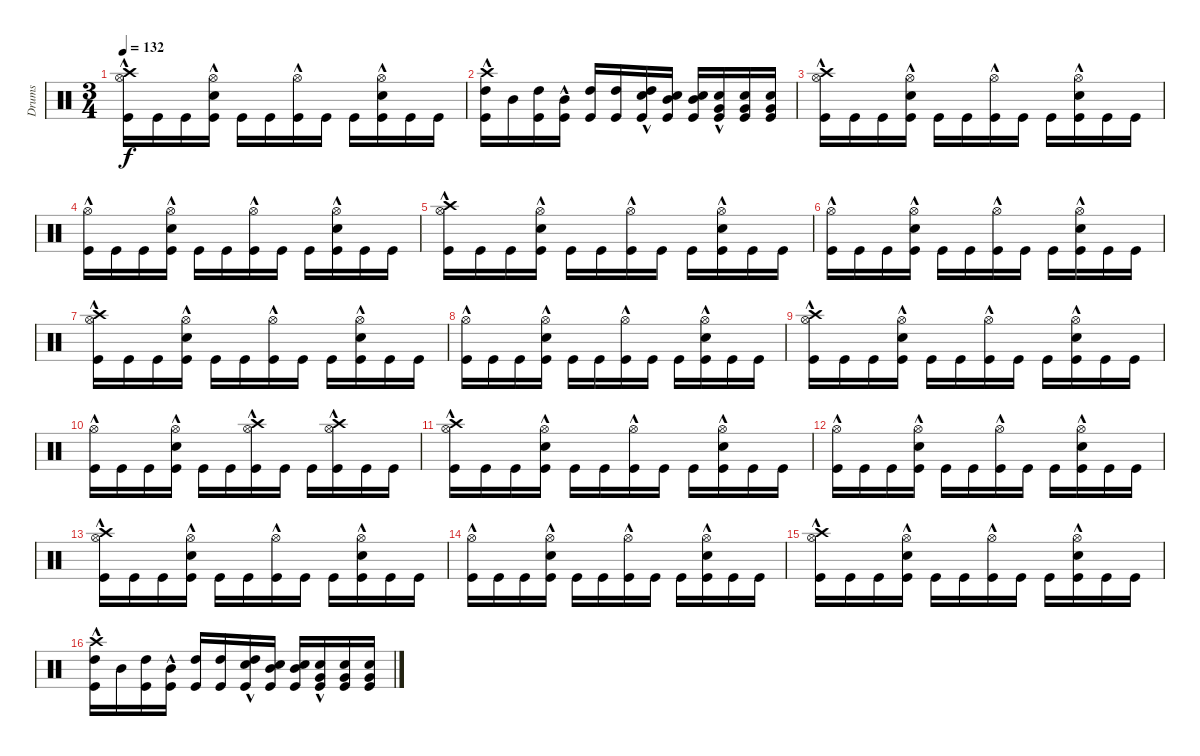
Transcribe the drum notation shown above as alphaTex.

\track ("Drums" "Drums") {instrument percussion}
\staff {score}
\articulation defaults
\ts (3 4)
\tempo 132
\clef neutral
\ks c
("Crash high (hit)" "Hi-Hat (open)"{hac} "Kick (hit)").16{dy f} "Kick (hit)".16 "Kick (hit)".16 ("Hi-Hat (open)"{hac} "Kick (hit)" "Electric Snare (hit)").16 "Kick (hit)".16 "Kick (hit)".16 ("Hi-Hat (open)"{hac} "Kick (hit)").16 "Kick (hit)".16 "Kick (hit)".16 ("Hi-Hat (open)"{hac} "Kick (hit)" "Electric Snare (hit)").16 "Kick (hit)".16 "Kick (hit)".16 |
("High Tom (hit)"{hac} "Crash high (hit)" "Kick (hit)").16 "Mid Tom (hit)".16 ("High Tom (hit)" "Kick (hit)").16 ("Mid Tom (hit)"{hac} "Kick (hit)").16 ("High Tom (hit)" "Kick (hit)").16 ("High Tom (hit)" "Kick (hit)").16 ("High Tom (hit)"{hac} "Snare (hit) 2" "Kick (hit)").16 ("Mid Tom (hit)" "Snare (hit) 2" "Kick (hit)").16 ("Mid Tom (hit)" "Snare (hit) 2" "Kick (hit)").16 ("Very Low Tom (hit)"{hac} "Snare (hit) 2" "Kick (hit)").16 ("Very Low Tom (hit)" "Snare (hit) 2" "Kick (hit)").16 ("Very Low Tom (hit)" "Snare (hit) 2" "Kick (hit)").16 |
("Crash high (hit)" "Hi-Hat (open)"{hac} "Kick (hit)").16 "Kick (hit)".16 "Kick (hit)".16 ("Hi-Hat (open)"{hac} "Kick (hit)" "Electric Snare (hit)").16 "Kick (hit)".16 "Kick (hit)".16 ("Hi-Hat (open)"{hac} "Kick (hit)").16 "Kick (hit)".16 "Kick (hit)".16 ("Hi-Hat (open)"{hac} "Kick (hit)" "Electric Snare (hit)").16 "Kick (hit)".16 "Kick (hit)".16 |
("Hi-Hat (open)"{hac} "Kick (hit)").16 "Kick (hit)".16 "Kick (hit)".16 ("Hi-Hat (open)"{hac} "Kick (hit)" "Electric Snare (hit)").16 "Kick (hit)".16 "Kick (hit)".16 ("Hi-Hat (open)"{hac} "Kick (hit)").16 "Kick (hit)".16 "Kick (hit)".16 ("Hi-Hat (open)"{hac} "Kick (hit)" "Electric Snare (hit)").16 "Kick (hit)".16 "Kick (hit)".16 |
("Crash high (hit)" "Hi-Hat (open)"{hac} "Kick (hit)").16 "Kick (hit)".16 "Kick (hit)".16 ("Hi-Hat (open)"{hac} "Kick (hit)" "Electric Snare (hit)").16 "Kick (hit)".16 "Kick (hit)".16 ("Hi-Hat (open)"{hac} "Kick (hit)").16 "Kick (hit)".16 "Kick (hit)".16 ("Hi-Hat (open)"{hac} "Kick (hit)" "Electric Snare (hit)").16 "Kick (hit)".16 "Kick (hit)".16 |
("Hi-Hat (open)"{hac} "Kick (hit)").16 "Kick (hit)".16 "Kick (hit)".16 ("Hi-Hat (open)"{hac} "Kick (hit)" "Electric Snare (hit)").16 "Kick (hit)".16 "Kick (hit)".16 ("Hi-Hat (open)"{hac} "Kick (hit)").16 "Kick (hit)".16 "Kick (hit)".16 ("Hi-Hat (open)"{hac} "Kick (hit)" "Electric Snare (hit)").16 "Kick (hit)".16 "Kick (hit)".16 |
("Crash high (hit)" "Hi-Hat (open)"{hac} "Kick (hit)").16 "Kick (hit)".16 "Kick (hit)".16 ("Hi-Hat (open)"{hac} "Kick (hit)" "Electric Snare (hit)").16 "Kick (hit)".16 "Kick (hit)".16 ("Hi-Hat (open)"{hac} "Kick (hit)").16 "Kick (hit)".16 "Kick (hit)".16 ("Hi-Hat (open)"{hac} "Kick (hit)" "Electric Snare (hit)").16 "Kick (hit)".16 "Kick (hit)".16 |
("Hi-Hat (open)"{hac} "Kick (hit)").16 "Kick (hit)".16 "Kick (hit)".16 ("Hi-Hat (open)"{hac} "Kick (hit)" "Electric Snare (hit)").16 "Kick (hit)".16 "Kick (hit)".16 ("Hi-Hat (open)"{hac} "Kick (hit)").16 "Kick (hit)".16 "Kick (hit)".16 ("Hi-Hat (open)"{hac} "Kick (hit)" "Electric Snare (hit)").16 "Kick (hit)".16 "Kick (hit)".16 |
("Crash high (hit)" "Hi-Hat (open)"{hac} "Kick (hit)").16 "Kick (hit)".16 "Kick (hit)".16 ("Hi-Hat (open)"{hac} "Kick (hit)" "Electric Snare (hit)").16 "Kick (hit)".16 "Kick (hit)".16 ("Hi-Hat (open)"{hac} "Kick (hit)").16 "Kick (hit)".16 "Kick (hit)".16 ("Hi-Hat (open)"{hac} "Kick (hit)" "Electric Snare (hit)").16 "Kick (hit)".16 "Kick (hit)".16 |
("Hi-Hat (open)"{hac} "Kick (hit)").16 "Kick (hit)".16 "Kick (hit)".16 ("Hi-Hat (open)"{hac} "Kick (hit)" "Electric Snare (hit)").16 "Kick (hit)".16 "Kick (hit)".16 ("Hi-Hat (open)"{hac} "Kick (hit)" "Crash high (hit)").16 "Kick (hit)".16 "Kick (hit)".16 ("Hi-Hat (open)"{hac} "Kick (hit)" "Crash high (hit)").16 "Kick (hit)".16 "Kick (hit)".16 |
("Crash high (hit)" "Hi-Hat (open)"{hac} "Kick (hit)").16 "Kick (hit)".16 "Kick (hit)".16 ("Hi-Hat (open)"{hac} "Kick (hit)" "Electric Snare (hit)").16 "Kick (hit)".16 "Kick (hit)".16 ("Hi-Hat (open)"{hac} "Kick (hit)").16 "Kick (hit)".16 "Kick (hit)".16 ("Hi-Hat (open)"{hac} "Kick (hit)" "Electric Snare (hit)").16 "Kick (hit)".16 "Kick (hit)".16 |
("Hi-Hat (open)"{hac} "Kick (hit)").16 "Kick (hit)".16 "Kick (hit)".16 ("Hi-Hat (open)"{hac} "Kick (hit)" "Electric Snare (hit)").16 "Kick (hit)".16 "Kick (hit)".16 ("Hi-Hat (open)"{hac} "Kick (hit)").16 "Kick (hit)".16 "Kick (hit)".16 ("Hi-Hat (open)"{hac} "Kick (hit)" "Electric Snare (hit)").16 "Kick (hit)".16 "Kick (hit)".16 |
("Crash high (hit)" "Hi-Hat (open)"{hac} "Kick (hit)").16 "Kick (hit)".16 "Kick (hit)".16 ("Hi-Hat (open)"{hac} "Kick (hit)" "Electric Snare (hit)").16 "Kick (hit)".16 "Kick (hit)".16 ("Hi-Hat (open)"{hac} "Kick (hit)").16 "Kick (hit)".16 "Kick (hit)".16 ("Hi-Hat (open)"{hac} "Kick (hit)" "Electric Snare (hit)").16 "Kick (hit)".16 "Kick (hit)".16 |
("Hi-Hat (open)"{hac} "Kick (hit)").16 "Kick (hit)".16 "Kick (hit)".16 ("Hi-Hat (open)"{hac} "Kick (hit)" "Electric Snare (hit)").16 "Kick (hit)".16 "Kick (hit)".16 ("Hi-Hat (open)"{hac} "Kick (hit)").16 "Kick (hit)".16 "Kick (hit)".16 ("Hi-Hat (open)"{hac} "Kick (hit)" "Electric Snare (hit)").16 "Kick (hit)".16 "Kick (hit)".16 |
("Crash high (hit)" "Hi-Hat (open)"{hac} "Kick (hit)").16 "Kick (hit)".16 "Kick (hit)".16 ("Hi-Hat (open)"{hac} "Kick (hit)" "Electric Snare (hit)").16 "Kick (hit)".16 "Kick (hit)".16 ("Hi-Hat (open)"{hac} "Kick (hit)").16 "Kick (hit)".16 "Kick (hit)".16 ("Hi-Hat (open)"{hac} "Kick (hit)" "Electric Snare (hit)").16 "Kick (hit)".16 "Kick (hit)".16 |
("High Tom (hit)"{hac} "Crash high (hit)" "Kick (hit)").16 "Mid Tom (hit)".16 ("High Tom (hit)" "Kick (hit)").16 ("Mid Tom (hit)"{hac} "Kick (hit)").16 ("High Tom (hit)" "Kick (hit)").16 ("High Tom (hit)" "Kick (hit)").16 ("High Tom (hit)"{hac} "Snare (hit) 2" "Kick (hit)").16 ("Mid Tom (hit)" "Snare (hit) 2" "Kick (hit)").16 ("Mid Tom (hit)" "Snare (hit) 2" "Kick (hit)").16 ("Very Low Tom (hit)"{hac} "Snare (hit) 2" "Kick (hit)").16 ("Very Low Tom (hit)" "Snare (hit) 2" "Kick (hit)").16 ("Very Low Tom (hit)" "Snare (hit) 2" "Kick (hit)").16
